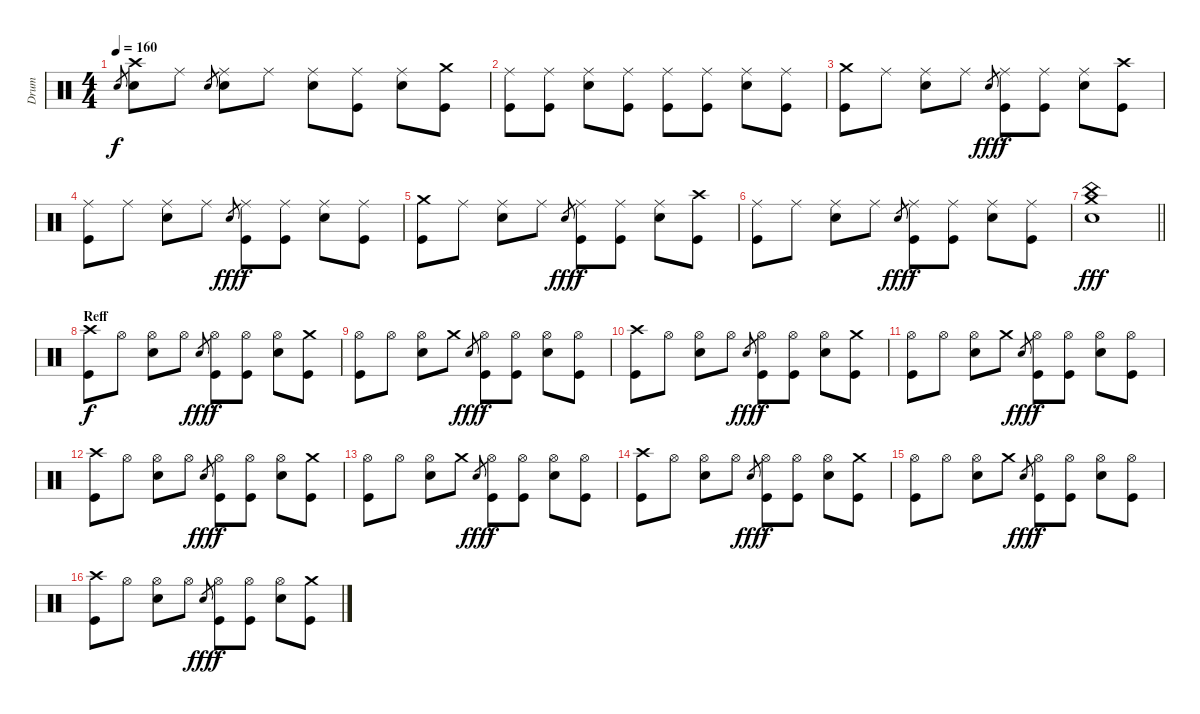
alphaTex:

\track ("Drum" "Drum") {instrument percussion}
\staff {score}
\articulation defaults
\ts (4 4)
\tempo 160
\clef neutral
\ks c "Electric Snare (hit)".8{gr dy f}
("Crash high (hit)" "Electric Snare (hit)").8 "Ride (middle)".8 "Electric Snare (hit)".8{gr} ("Ride (middle)" "Electric Snare (hit)").8 "Ride (middle)".8 ("Ride (middle)" "Electric Snare (hit)").8 ("Ride (middle)" "Kick (hit)").8 ("Ride (middle)" "Electric Snare (hit)").8 ("Crash medium (hit)" "Kick (hit)").8 |
("Ride (middle)" "Kick (hit)").8 ("Ride (middle)" "Kick (hit)").8 ("Ride (middle)" "Electric Snare (hit)").8 ("Ride (middle)" "Kick (hit)").8 ("Ride (middle)" "Kick (hit)").8 ("Ride (middle)" "Kick (hit)").8 ("Ride (middle)" "Electric Snare (hit)").8 ("Ride (middle)" "Kick (hit)").8 |
("Crash medium (hit)" "Kick (hit)").8 "Ride (middle)".8 ("Ride (middle)" "Electric Snare (hit)").8 "Ride (middle)".8 "Electric Snare (hit)".8{gr dy fff} ("Ride (middle)" "Kick (hit)").8{dy f} ("Ride (middle)" "Kick (hit)").8 ("Ride (middle)" "Electric Snare (hit)").8 ("Crash high (hit)" "Kick (hit)").8 |
("Ride (middle)" "Kick (hit)").8 "Ride (middle)".8 ("Ride (middle)" "Electric Snare (hit)").8 "Ride (middle)".8 "Electric Snare (hit)".8{gr dy fff} ("Ride (middle)" "Kick (hit)").8{dy f} ("Ride (middle)" "Kick (hit)").8 ("Ride (middle)" "Electric Snare (hit)").8 ("Ride (middle)" "Kick (hit)").8 |
("Crash medium (hit)" "Kick (hit)").8 "Ride (middle)".8 ("Ride (middle)" "Electric Snare (hit)").8 "Ride (middle)".8 "Electric Snare (hit)".8{gr dy fff} ("Ride (middle)" "Kick (hit)").8{dy f} ("Ride (middle)" "Kick (hit)").8 ("Ride (middle)" "Electric Snare (hit)").8 ("Crash high (hit)" "Kick (hit)").8 |
("Ride (middle)" "Kick (hit)").8 "Ride (middle)".8 ("Ride (middle)" "Electric Snare (hit)").8 "Ride (middle)".8 "Electric Snare (hit)".8{gr dy fff} ("Ride (middle)" "Kick (hit)").8{dy f} ("Ride (middle)" "Kick (hit)").8 ("Ride (middle)" "Electric Snare (hit)").8 ("Ride (middle)" "Kick (hit)").8 |
\barLineRight lightlight
("Crash medium (hit)" "China (hit)" "Electric Snare (hit)").1{dy fff} |
\section ("" "Reff")
("Crash high (hit)" "Kick (hit)").8{dy f} "Hi-Hat (open)".8 ("Hi-Hat (open)" "Electric Snare (hit)").8 "Hi-Hat (open)".8 "Electric Snare (hit)".8{gr dy fff} ("Hi-Hat (open)" "Kick (hit)").8{dy f} ("Hi-Hat (open)" "Kick (hit)").8 ("Hi-Hat (open)" "Electric Snare (hit)").8 ("Crash medium (hit)" "Kick (hit)").8 |
("Hi-Hat (open)" "Kick (hit)").8 "Hi-Hat (open)".8 ("Hi-Hat (open)" "Electric Snare (hit)").8 "Crash medium (hit)".8 "Electric Snare (hit)".8{gr dy fff} ("Hi-Hat (open)" "Kick (hit)").8{dy f} ("Hi-Hat (open)" "Kick (hit)").8 ("Hi-Hat (open)" "Electric Snare (hit)").8 ("Hi-Hat (open)" "Kick (hit)").8 |
("Crash high (hit)" "Kick (hit)").8 "Hi-Hat (open)".8 ("Hi-Hat (open)" "Electric Snare (hit)").8 "Hi-Hat (open)".8 "Electric Snare (hit)".8{gr dy fff} ("Hi-Hat (open)" "Kick (hit)").8{dy f} ("Hi-Hat (open)" "Kick (hit)").8 ("Hi-Hat (open)" "Electric Snare (hit)").8 ("Crash medium (hit)" "Kick (hit)").8 |
("Hi-Hat (open)" "Kick (hit)").8 "Hi-Hat (open)".8 ("Hi-Hat (open)" "Electric Snare (hit)").8 "Crash medium (hit)".8 "Electric Snare (hit)".8{gr dy fff} ("Hi-Hat (open)" "Kick (hit)").8{dy f} ("Hi-Hat (open)" "Kick (hit)").8 ("Hi-Hat (open)" "Electric Snare (hit)").8 ("Hi-Hat (open)" "Kick (hit)").8 |
("Crash high (hit)" "Kick (hit)").8 "Hi-Hat (open)".8 ("Hi-Hat (open)" "Electric Snare (hit)").8 "Hi-Hat (open)".8 "Electric Snare (hit)".8{gr dy fff} ("Hi-Hat (open)" "Kick (hit)").8{dy f} ("Hi-Hat (open)" "Kick (hit)").8 ("Hi-Hat (open)" "Electric Snare (hit)").8 ("Crash medium (hit)" "Kick (hit)").8 |
("Hi-Hat (open)" "Kick (hit)").8 "Hi-Hat (open)".8 ("Hi-Hat (open)" "Electric Snare (hit)").8 "Crash medium (hit)".8 "Electric Snare (hit)".8{gr dy fff} ("Hi-Hat (open)" "Kick (hit)").8{dy f} ("Hi-Hat (open)" "Kick (hit)").8 ("Hi-Hat (open)" "Electric Snare (hit)").8 ("Hi-Hat (open)" "Kick (hit)").8 |
("Crash high (hit)" "Kick (hit)").8 "Hi-Hat (open)".8 ("Hi-Hat (open)" "Electric Snare (hit)").8 "Hi-Hat (open)".8 "Electric Snare (hit)".8{gr dy fff} ("Hi-Hat (open)" "Kick (hit)").8{dy f} ("Hi-Hat (open)" "Kick (hit)").8 ("Hi-Hat (open)" "Electric Snare (hit)").8 ("Crash medium (hit)" "Kick (hit)").8 |
("Hi-Hat (open)" "Kick (hit)").8 "Hi-Hat (open)".8 ("Hi-Hat (open)" "Electric Snare (hit)").8 "Crash medium (hit)".8 "Electric Snare (hit)".8{gr dy fff} ("Hi-Hat (open)" "Kick (hit)").8{dy f} ("Hi-Hat (open)" "Kick (hit)").8 ("Hi-Hat (open)" "Electric Snare (hit)").8 ("Hi-Hat (open)" "Kick (hit)").8 |
("Crash high (hit)" "Kick (hit)").8 "Hi-Hat (open)".8 ("Hi-Hat (open)" "Electric Snare (hit)").8 "Hi-Hat (open)".8 "Electric Snare (hit)".8{gr dy fff} ("Hi-Hat (open)" "Kick (hit)").8{dy f} ("Hi-Hat (open)" "Kick (hit)").8 ("Hi-Hat (open)" "Electric Snare (hit)").8 ("Crash medium (hit)" "Kick (hit)").8
